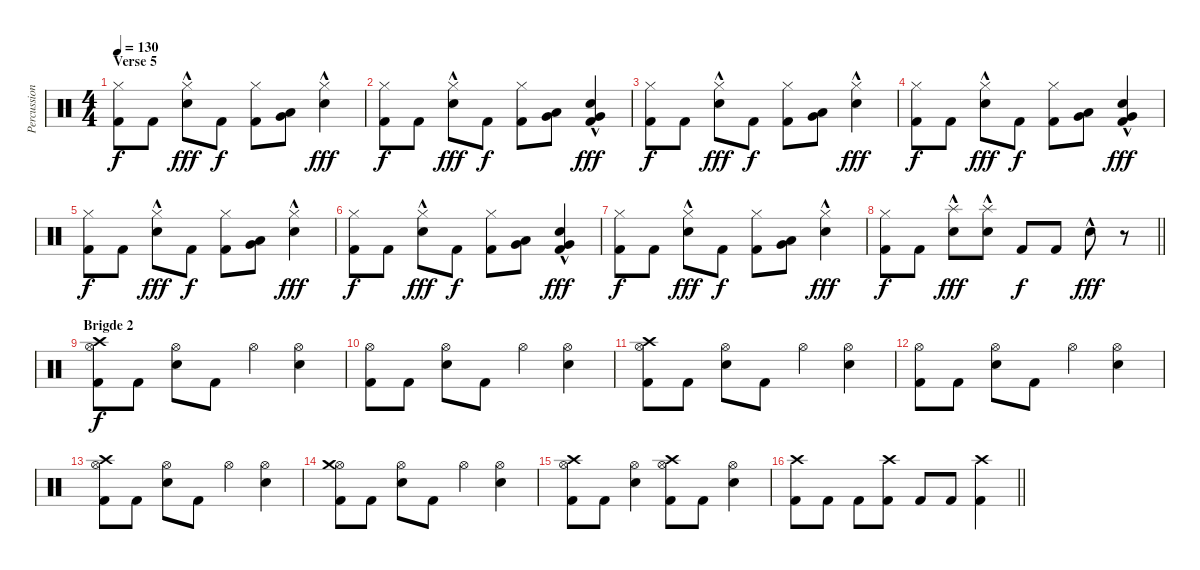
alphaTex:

\track ("Percussion 1" "Percussion") {instrument percussion}
\staff {score}
\articulation defaults
\ts (4 4)
\section ("" "Verse 5")
\tempo 130
\clef neutral
\ks c
("Hi-Hat (closed)" "Kick (hit) 2").8{dy f} "Kick (hit) 2".8 ("Hi-Hat (closed)" "Electric Snare (hit)"{hac}).8{dy fff} "Kick (hit) 2".8{dy f} ("Hi-Hat (closed)" "Kick (hit) 2").8 ("Very Low Tom (hit)" "Low Floor Tom (hit)").8 ("Hi-Hat (closed)" "Electric Snare (hit)"{hac}).4{dy fff} |
("Hi-Hat (closed)" "Kick (hit) 2").8{dy f} "Kick (hit) 2".8 ("Hi-Hat (closed)" "Electric Snare (hit)"{hac}).8{dy fff} "Kick (hit) 2".8{dy f} ("Hi-Hat (closed)" "Kick (hit) 2").8 ("Very Low Tom (hit)" "Low Floor Tom (hit)").8 ("Electric Snare (hit)"{hac} "Very Low Tom (hit)"{hac} "Kick (hit) 2").4{dy fff} |
("Hi-Hat (closed)" "Kick (hit) 2").8{dy f} "Kick (hit) 2".8 ("Hi-Hat (closed)" "Electric Snare (hit)"{hac}).8{dy fff} "Kick (hit) 2".8{dy f} ("Hi-Hat (closed)" "Kick (hit) 2").8 ("Very Low Tom (hit)" "Low Floor Tom (hit)").8 ("Hi-Hat (closed)" "Electric Snare (hit)"{hac}).4{dy fff} |
("Hi-Hat (closed)" "Kick (hit) 2").8{dy f} "Kick (hit) 2".8 ("Hi-Hat (closed)" "Electric Snare (hit)"{hac}).8{dy fff} "Kick (hit) 2".8{dy f} ("Hi-Hat (closed)" "Kick (hit) 2").8 ("Very Low Tom (hit)" "Low Floor Tom (hit)").8 ("Electric Snare (hit)"{hac} "Very Low Tom (hit)"{hac} "Kick (hit) 2").4{dy fff} |
("Hi-Hat (closed)" "Kick (hit) 2").8{dy f} "Kick (hit) 2".8 ("Hi-Hat (closed)" "Electric Snare (hit)"{hac}).8{dy fff} "Kick (hit) 2".8{dy f} ("Hi-Hat (closed)" "Kick (hit) 2").8 ("Very Low Tom (hit)" "Low Floor Tom (hit)").8 ("Hi-Hat (closed)" "Electric Snare (hit)"{hac}).4{dy fff} |
("Hi-Hat (closed)" "Kick (hit) 2").8{dy f} "Kick (hit) 2".8 ("Hi-Hat (closed)" "Electric Snare (hit)"{hac}).8{dy fff} "Kick (hit) 2".8{dy f} ("Hi-Hat (closed)" "Kick (hit) 2").8 ("Very Low Tom (hit)" "Low Floor Tom (hit)").8 ("Electric Snare (hit)"{hac} "Very Low Tom (hit)"{hac} "Kick (hit) 2").4{dy fff} |
("Hi-Hat (closed)" "Kick (hit) 2").8{dy f} "Kick (hit) 2".8 ("Hi-Hat (closed)" "Electric Snare (hit)"{hac}).8{dy fff} "Kick (hit) 2".8{dy f} ("Hi-Hat (closed)" "Kick (hit) 2").8 ("Very Low Tom (hit)" "Low Floor Tom (hit)").8 ("Hi-Hat (closed)" "Electric Snare (hit)"{hac}).4{dy fff} |
\barLineRight lightlight
("Hi-Hat (closed)" "Kick (hit) 2").8{dy f} "Kick (hit) 2".8 ("Splash (hit)" "Electric Snare (hit)"{hac}).8{dy fff} ("Splash (hit)" "Electric Snare (hit)"{hac}).8 "Kick (hit) 2".8{dy f} "Kick (hit) 2".8 "Electric Snare (hit)"{hac}.8{dy fff} r.8 |
\section ("" "Brigde 2")
("Hi-Hat (open)" "Crash high (hit)" "Kick (hit) 2").8{dy f} "Kick (hit) 2".8 ("Hi-Hat (open)" "Electric Snare (hit)").8 "Kick (hit) 2".8 "Hi-Hat (open)".4 ("Hi-Hat (open)" "Electric Snare (hit)").4 |
("Hi-Hat (open)" "Kick (hit) 2").8 "Kick (hit) 2".8 ("Hi-Hat (open)" "Electric Snare (hit)").8 "Kick (hit) 2".8 "Hi-Hat (open)".4 ("Hi-Hat (open)" "Electric Snare (hit)").4 |
("Hi-Hat (open)" "Crash high (hit)" "Kick (hit) 2").8 "Kick (hit) 2".8 ("Hi-Hat (open)" "Electric Snare (hit)").8 "Kick (hit) 2".8 "Hi-Hat (open)".4 ("Hi-Hat (open)" "Electric Snare (hit)").4 |
("Hi-Hat (open)" "Kick (hit) 2").8 "Kick (hit) 2".8 ("Hi-Hat (open)" "Electric Snare (hit)").8 "Kick (hit) 2".8 "Hi-Hat (open)".4 ("Hi-Hat (open)" "Electric Snare (hit)").4 |
("Hi-Hat (open)" "Crash high (hit)" "Kick (hit) 2").8 "Kick (hit) 2".8 ("Hi-Hat (open)" "Electric Snare (hit)").8 "Kick (hit) 2".8 "Hi-Hat (open)".4 ("Hi-Hat (open)" "Electric Snare (hit)").4 |
("Hi-Hat (open)" "Crash medium (hit)" "Kick (hit) 2").8 "Kick (hit) 2".8 ("Hi-Hat (open)" "Electric Snare (hit)").8 "Kick (hit) 2".8 "Hi-Hat (open)".4 ("Hi-Hat (open)" "Electric Snare (hit)").4 |
("Hi-Hat (open)" "Crash high (hit)" "Kick (hit) 2").8 "Kick (hit) 2".8 ("Hi-Hat (open)" "Electric Snare (hit)").4 ("Hi-Hat (open)" "Crash high (hit)" "Kick (hit) 2").8 "Kick (hit) 2".8 ("Hi-Hat (open)" "Electric Snare (hit)").4 |
\barLineRight lightlight
("Crash high (hit)" "Kick (hit) 2").8 "Kick (hit) 2".8 "Kick (hit) 2".8 ("Crash high (hit)" "Kick (hit) 2").8 "Kick (hit) 2".8 "Kick (hit) 2".8 ("Crash high (hit)" "Kick (hit) 2").4
